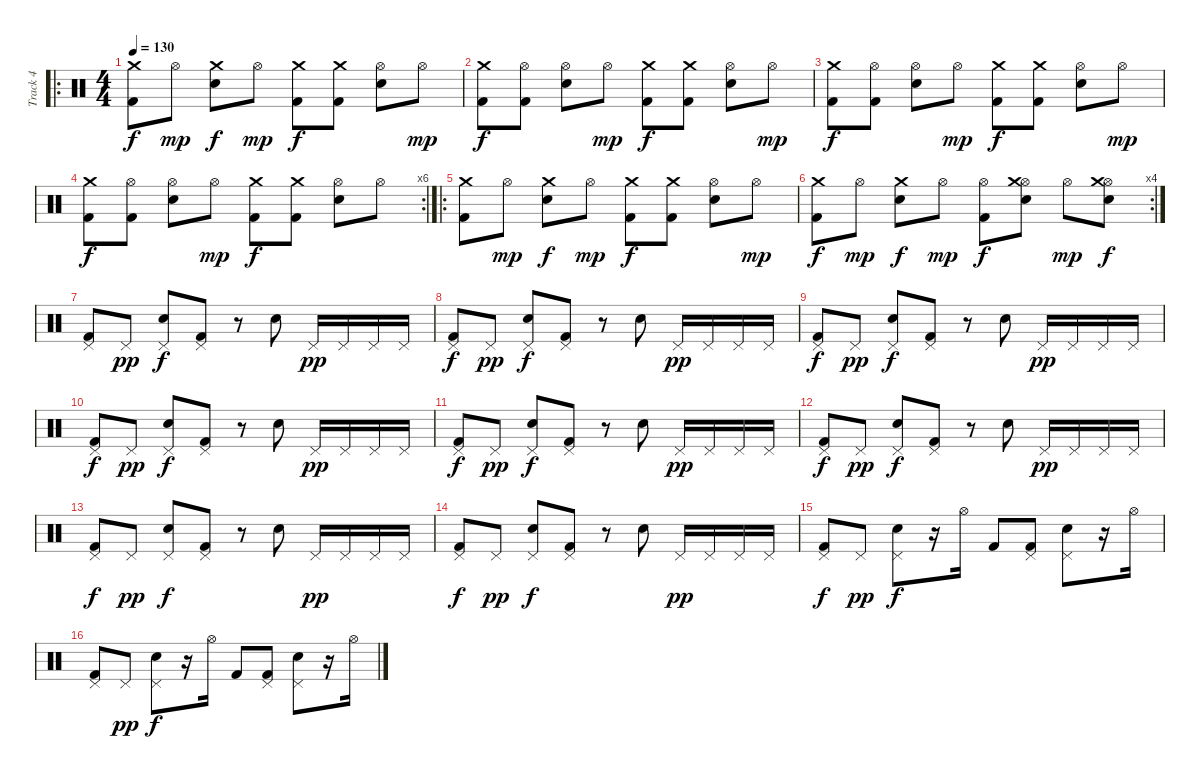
\track ("Track 4" "Track 4") {instrument percussion}
\staff {score}
\articulation defaults
\ro
\ts (4 4)
\tempo 130
\clef neutral
\ks c
("Crash medium (hit)" "Kick (hit) 2").8{dy f} "Hi-Hat (open)".8{dy mp} ("Crash medium (hit)" "Electric Snare (hit)").8{dy f} "Hi-Hat (open)".8{dy mp} ("Crash medium (hit)" "Kick (hit) 2").8{dy f} ("Crash medium (hit)" "Kick (hit) 2").8 ("Hi-Hat (open)" "Electric Snare (hit)").8 "Hi-Hat (open)".8{dy mp} |
("Crash medium (hit)" "Kick (hit) 2").8{dy f} ("Hi-Hat (open)" "Kick (hit) 2").8 ("Hi-Hat (open)" "Electric Snare (hit)").8 "Hi-Hat (open)".8{dy mp} ("Crash medium (hit)" "Kick (hit) 2").8{dy f} ("Crash medium (hit)" "Kick (hit) 2").8 ("Hi-Hat (open)" "Electric Snare (hit)").8 "Hi-Hat (open)".8{dy mp} |
("Crash medium (hit)" "Kick (hit) 2").8{dy f} ("Hi-Hat (open)" "Kick (hit) 2").8 ("Hi-Hat (open)" "Electric Snare (hit)").8 "Hi-Hat (open)".8{dy mp} ("Crash medium (hit)" "Kick (hit) 2").8{dy f} ("Crash medium (hit)" "Kick (hit) 2").8 ("Hi-Hat (open)" "Electric Snare (hit)").8 "Hi-Hat (open)".8{dy mp} |
\rc 6
("Crash medium (hit)" "Kick (hit) 2").8{dy f} ("Hi-Hat (open)" "Kick (hit) 2").8 ("Hi-Hat (open)" "Electric Snare (hit)").8 "Hi-Hat (open)".8{dy mp} ("Crash medium (hit)" "Kick (hit) 2").8{dy f} ("Crash medium (hit)" "Kick (hit) 2").8 ("Hi-Hat (open)" "Electric Snare (hit)").8 "Hi-Hat (open)".8 |
\ro
("Crash medium (hit)" "Kick (hit) 2").8 "Hi-Hat (open)".8{dy mp} ("Crash medium (hit)" "Electric Snare (hit)").8{dy f} "Hi-Hat (open)".8{dy mp} ("Crash medium (hit)" "Kick (hit) 2").8{dy f} ("Crash medium (hit)" "Kick (hit) 2").8 ("Hi-Hat (open)" "Electric Snare (hit)").8 "Hi-Hat (open)".8{dy mp} |
\rc 4
("Crash medium (hit)" "Kick (hit) 2").8{dy f} "Hi-Hat (open)".8{dy mp} ("Crash medium (hit)" "Electric Snare (hit)").8{dy f} "Hi-Hat (open)".8{dy mp} ("Hi-Hat (open)" "Kick (hit) 2").8{dy f} ("Hi-Hat (open)" "Crash medium (hit)" "Electric Snare (hit)").8 "Hi-Hat (open)".8{dy mp} ("Hi-Hat (open)" "Crash medium (hit)" "Electric Snare (hit)").8{dy f} |
("Pedal Hi-Hat (hit)" "Kick (hit) 2").8 "Pedal Hi-Hat (hit)".8{dy pp} ("Pedal Hi-Hat (hit)" "Electric Snare (hit)").8{dy f} ("Pedal Hi-Hat (hit)" "Kick (hit) 2").8 r.8 "Electric Snare (hit)".8 "Pedal Hi-Hat (hit)".16{dy pp} "Pedal Hi-Hat (hit)".16 "Pedal Hi-Hat (hit)".16 "Pedal Hi-Hat (hit)".16 |
("Pedal Hi-Hat (hit)" "Kick (hit) 2").8{dy f} "Pedal Hi-Hat (hit)".8{dy pp} ("Pedal Hi-Hat (hit)" "Electric Snare (hit)").8{dy f} ("Pedal Hi-Hat (hit)" "Kick (hit) 2").8 r.8 "Electric Snare (hit)".8 "Pedal Hi-Hat (hit)".16{dy pp} "Pedal Hi-Hat (hit)".16 "Pedal Hi-Hat (hit)".16 "Pedal Hi-Hat (hit)".16 |
("Pedal Hi-Hat (hit)" "Kick (hit) 2").8{dy f} "Pedal Hi-Hat (hit)".8{dy pp} ("Pedal Hi-Hat (hit)" "Electric Snare (hit)").8{dy f} ("Pedal Hi-Hat (hit)" "Kick (hit) 2").8 r.8 "Electric Snare (hit)".8 "Pedal Hi-Hat (hit)".16{dy pp} "Pedal Hi-Hat (hit)".16 "Pedal Hi-Hat (hit)".16 "Pedal Hi-Hat (hit)".16 |
("Pedal Hi-Hat (hit)" "Kick (hit) 2").8{dy f} "Pedal Hi-Hat (hit)".8{dy pp} ("Pedal Hi-Hat (hit)" "Electric Snare (hit)").8{dy f} ("Pedal Hi-Hat (hit)" "Kick (hit) 2").8 r.8 "Electric Snare (hit)".8 "Pedal Hi-Hat (hit)".16{dy pp} "Pedal Hi-Hat (hit)".16 "Pedal Hi-Hat (hit)".16 "Pedal Hi-Hat (hit)".16 |
("Pedal Hi-Hat (hit)" "Kick (hit) 2").8{dy f} "Pedal Hi-Hat (hit)".8{dy pp} ("Pedal Hi-Hat (hit)" "Electric Snare (hit)").8{dy f} ("Pedal Hi-Hat (hit)" "Kick (hit) 2").8 r.8 "Electric Snare (hit)".8 "Pedal Hi-Hat (hit)".16{dy pp} "Pedal Hi-Hat (hit)".16 "Pedal Hi-Hat (hit)".16 "Pedal Hi-Hat (hit)".16 |
("Pedal Hi-Hat (hit)" "Kick (hit) 2").8{dy f} "Pedal Hi-Hat (hit)".8{dy pp} ("Pedal Hi-Hat (hit)" "Electric Snare (hit)").8{dy f} ("Pedal Hi-Hat (hit)" "Kick (hit) 2").8 r.8 "Electric Snare (hit)".8 "Pedal Hi-Hat (hit)".16{dy pp} "Pedal Hi-Hat (hit)".16 "Pedal Hi-Hat (hit)".16 "Pedal Hi-Hat (hit)".16 |
("Pedal Hi-Hat (hit)" "Kick (hit) 2").8{dy f} "Pedal Hi-Hat (hit)".8{dy pp} ("Pedal Hi-Hat (hit)" "Electric Snare (hit)").8{dy f} ("Pedal Hi-Hat (hit)" "Kick (hit) 2").8 r.8 "Electric Snare (hit)".8 "Pedal Hi-Hat (hit)".16{dy pp} "Pedal Hi-Hat (hit)".16 "Pedal Hi-Hat (hit)".16 "Pedal Hi-Hat (hit)".16 |
("Pedal Hi-Hat (hit)" "Kick (hit) 2").8{dy f} "Pedal Hi-Hat (hit)".8{dy pp} ("Pedal Hi-Hat (hit)" "Electric Snare (hit)").8{dy f} ("Pedal Hi-Hat (hit)" "Kick (hit) 2").8 r.8 "Electric Snare (hit)".8 "Pedal Hi-Hat (hit)".16{dy pp} "Pedal Hi-Hat (hit)".16 "Pedal Hi-Hat (hit)".16 "Pedal Hi-Hat (hit)".16 |
("Pedal Hi-Hat (hit)" "Kick (hit) 2").8{dy f} "Pedal Hi-Hat (hit)".8{dy pp} ("Pedal Hi-Hat (hit)" "Electric Snare (hit)").8{dy f} r.16 "Hi-Hat (open)".16 "Kick (hit) 2".8 ("Pedal Hi-Hat (hit)" "Kick (hit) 2").8 ("Pedal Hi-Hat (hit)" "Electric Snare (hit)").8 r.16 "Hi-Hat (open)".16 |
("Pedal Hi-Hat (hit)" "Kick (hit) 2").8 "Pedal Hi-Hat (hit)".8{dy pp} ("Pedal Hi-Hat (hit)" "Electric Snare (hit)").8{dy f} r.16 "Hi-Hat (open)".16 "Kick (hit) 2".8 ("Pedal Hi-Hat (hit)" "Kick (hit) 2").8 ("Pedal Hi-Hat (hit)" "Electric Snare (hit)").8 r.16 "Hi-Hat (open)".16
